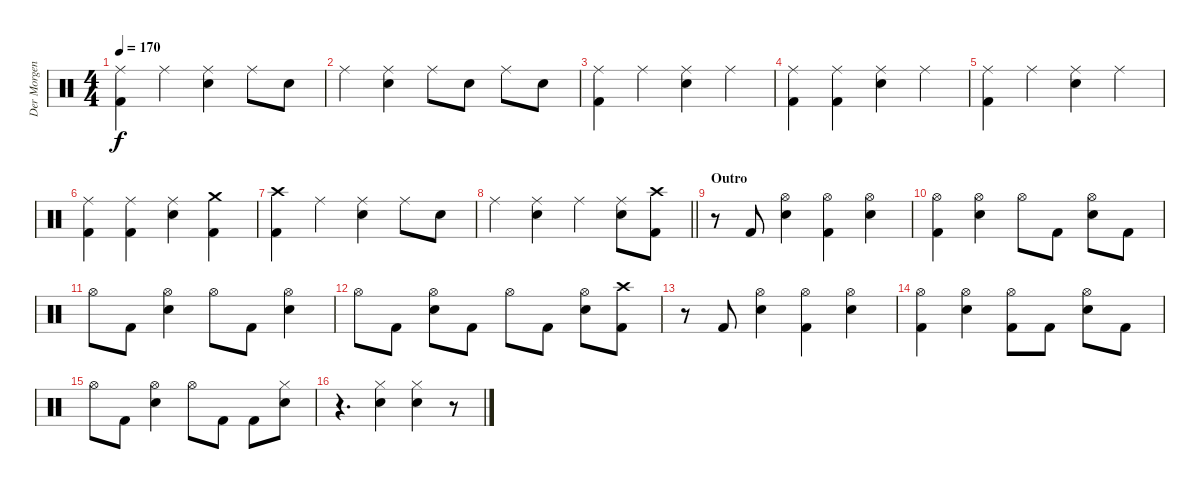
\track ("Der Morgenstern" "Der Morgen") {instrument percussion}
\staff {score}
\articulation defaults
\ts (4 4)
\tempo 170
\clef neutral
\ks c
("Ride (middle)" "Kick (hit) 2").4{dy f} "Ride (middle)".4 ("Ride (middle)" "Electric Snare (hit)").4 "Ride (middle)".8 "Electric Snare (hit)".8 |
"Ride (middle)".4 ("Ride (middle)" "Electric Snare (hit)").4 "Ride (middle)".8 "Electric Snare (hit)".8 "Ride (middle)".8 "Electric Snare (hit)".8 |
("Ride (middle)" "Kick (hit) 2").4 "Ride (middle)".4 ("Ride (middle)" "Electric Snare (hit)").4 "Ride (middle)".4 |
("Ride (middle)" "Kick (hit) 2").4 ("Ride (middle)" "Kick (hit) 2").4 ("Ride (middle)" "Electric Snare (hit)").4 "Ride (middle)".4 |
("Ride (middle)" "Kick (hit) 2").4 "Ride (middle)".4 ("Ride (middle)" "Electric Snare (hit)").4 "Ride (middle)".4 |
("Ride (middle)" "Kick (hit) 2").4 ("Ride (middle)" "Kick (hit) 2").4 ("Ride (middle)" "Electric Snare (hit)").4 ("Crash medium (hit)" "Kick (hit) 2").4 |
("Crash high (hit)" "Kick (hit) 2").4 "Ride (middle)".4 ("Ride (middle)" "Electric Snare (hit)").4 "Ride (middle)".8 "Electric Snare (hit)".8 |
\barLineRight lightlight "Ride (middle)".4
("Ride (middle)" "Electric Snare (hit)").4 "Ride (middle)".4 ("Ride (middle)" "Electric Snare (hit)").8 ("Crash high (hit)" "Kick (hit) 2").8 |
\section ("" "Outro")
r.8 "Kick (hit) 2".8 ("Hi-Hat (open)" "Electric Snare (hit)").4 ("Hi-Hat (open)" "Kick (hit) 2").4 ("Hi-Hat (open)" "Electric Snare (hit)").4 |
("Hi-Hat (open)" "Kick (hit) 2").4 ("Hi-Hat (open)" "Electric Snare (hit)").4 "Hi-Hat (open)".8 "Kick (hit) 2".8 ("Hi-Hat (open)" "Electric Snare (hit)").8 "Kick (hit) 2".8 |
"Hi-Hat (open)".8 "Kick (hit) 2".8 ("Hi-Hat (open)" "Electric Snare (hit)").4 "Hi-Hat (open)".8 "Kick (hit) 2".8 ("Hi-Hat (open)" "Electric Snare (hit)").4 |
"Hi-Hat (open)".8 "Kick (hit) 2".8 ("Hi-Hat (open)" "Electric Snare (hit)").8 "Kick (hit) 2".8 "Hi-Hat (open)".8 "Kick (hit) 2".8 ("Hi-Hat (open)" "Electric Snare (hit)").8 ("Crash high (hit)" "Kick (hit) 2").8 |
r.8 "Kick (hit) 2".8 ("Hi-Hat (open)" "Electric Snare (hit)").4 ("Hi-Hat (open)" "Kick (hit) 2").4 ("Hi-Hat (open)" "Electric Snare (hit)").4 |
("Hi-Hat (open)" "Kick (hit) 2").4 ("Hi-Hat (open)" "Electric Snare (hit)").4 ("Hi-Hat (open)" "Kick (hit) 2").8 "Kick (hit) 2".8 ("Hi-Hat (open)" "Electric Snare (hit)").8 "Kick (hit) 2".8 |
"Hi-Hat (open)".8 "Kick (hit) 2".8 ("Hi-Hat (open)" "Electric Snare (hit)").4 "Hi-Hat (open)".8 "Kick (hit) 2".8 "Kick (hit) 2".8 ("Hi-Hat (closed)" "Electric Snare (hit)").8 |
r.4{d} ("Hi-Hat (closed)" "Electric Snare (hit)").4 ("Hi-Hat (closed)" "Electric Snare (hit)").4 r.8
